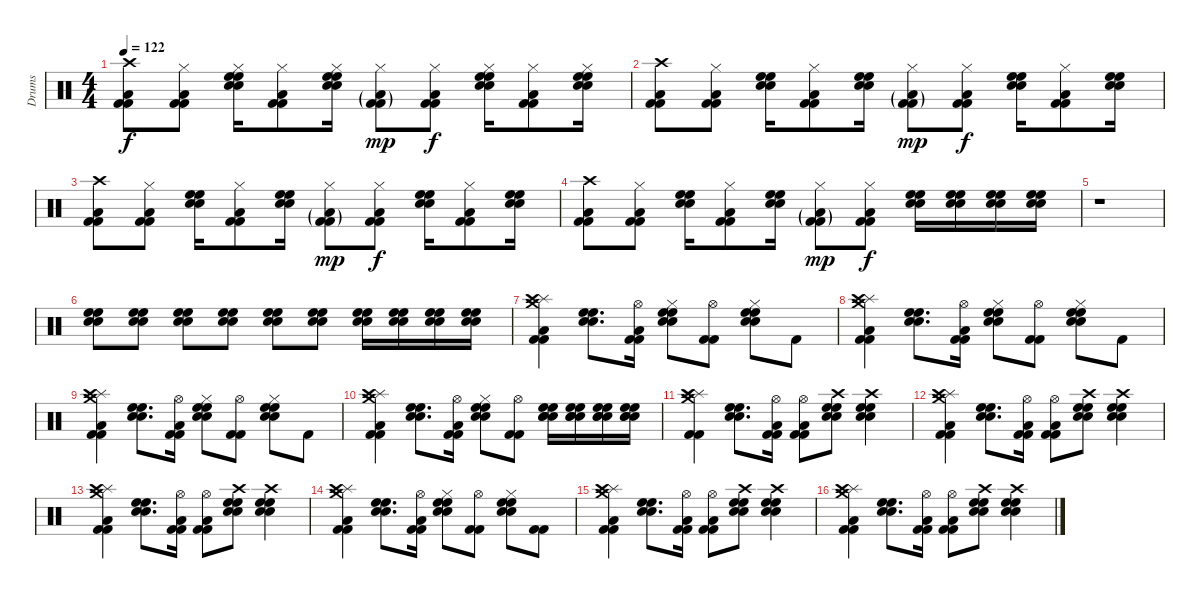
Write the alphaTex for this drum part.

\track ("Drums" "Drums") {instrument percussion}
\staff {score}
\articulation defaults
\ts (4 4)
\tempo 122
\clef neutral
\ks c
("Crash high (hit)" "Low Floor Tom (hit)" "Kick (hit) 2" "Kick (hit) 2").8{dy f} ("Hi-Hat (closed)" "Low Floor Tom (hit)" "Kick (hit) 2" "Kick (hit) 2").8 ("Hi-Hat (closed)" "High Floor Tom (hit)" "Electric Snare (hit)" "High Floor Tom (hit)" "Electric Snare (hit)").16 ("Hi-Hat (closed)" "Low Floor Tom (hit)" "Kick (hit) 2" "Kick (hit) 2").8 ("Hi-Hat (closed)" "High Floor Tom (hit)" "Electric Snare (hit)" "High Floor Tom (hit)" "Electric Snare (hit)").16 ("Hi-Hat (closed)" "Low Floor Tom (hit)"{g} "Kick (hit) 2"{g} "Kick (hit) 2"{g}).8{dy mp} ("Hi-Hat (closed)" "Low Floor Tom (hit)" "Kick (hit) 2" "Kick (hit) 2").8{dy f} ("Hi-Hat (closed)" "High Floor Tom (hit)" "Electric Snare (hit)" "High Floor Tom (hit)" "Electric Snare (hit)").16 ("Hi-Hat (closed)" "Low Floor Tom (hit)" "Kick (hit) 2" "Kick (hit) 2").8 ("Hi-Hat (closed)" "High Floor Tom (hit)" "Electric Snare (hit)" "High Floor Tom (hit)" "Electric Snare (hit)").16 |
("Crash high (hit)" "Low Floor Tom (hit)" "Kick (hit) 2" "Kick (hit) 2").8 ("Hi-Hat (closed)" "Low Floor Tom (hit)" "Kick (hit) 2" "Kick (hit) 2").8 ("High Floor Tom (hit)" "Electric Snare (hit)" "High Floor Tom (hit)" "Electric Snare (hit)").16 ("Hi-Hat (closed)" "Low Floor Tom (hit)" "Kick (hit) 2" "Kick (hit) 2").8 ("High Floor Tom (hit)" "Electric Snare (hit)" "High Floor Tom (hit)" "Electric Snare (hit)").16 ("Hi-Hat (closed)" "Low Floor Tom (hit)"{g} "Kick (hit) 2"{g} "Kick (hit) 2"{g}).8{dy mp} ("Hi-Hat (closed)" "Low Floor Tom (hit)" "Kick (hit) 2" "Kick (hit) 2").8{dy f} ("High Floor Tom (hit)" "Electric Snare (hit)" "High Floor Tom (hit)" "Electric Snare (hit)").16 ("Hi-Hat (closed)" "Low Floor Tom (hit)" "Kick (hit) 2" "Kick (hit) 2").8 ("High Floor Tom (hit)" "Electric Snare (hit)" "High Floor Tom (hit)" "Electric Snare (hit)").16 |
("Crash high (hit)" "Low Floor Tom (hit)" "Kick (hit) 2" "Kick (hit) 2").8 ("Hi-Hat (closed)" "Low Floor Tom (hit)" "Kick (hit) 2" "Kick (hit) 2").8 ("High Floor Tom (hit)" "Electric Snare (hit)" "High Floor Tom (hit)" "Electric Snare (hit)").16 ("Hi-Hat (closed)" "Low Floor Tom (hit)" "Kick (hit) 2" "Kick (hit) 2").8 ("High Floor Tom (hit)" "Electric Snare (hit)" "High Floor Tom (hit)" "Electric Snare (hit)").16 ("Hi-Hat (closed)" "Low Floor Tom (hit)"{g} "Kick (hit) 2"{g} "Kick (hit) 2"{g}).8{dy mp} ("Hi-Hat (closed)" "Low Floor Tom (hit)" "Kick (hit) 2" "Kick (hit) 2").8{dy f} ("High Floor Tom (hit)" "Electric Snare (hit)" "High Floor Tom (hit)" "Electric Snare (hit)").16 ("Hi-Hat (closed)" "Low Floor Tom (hit)" "Kick (hit) 2" "Kick (hit) 2").8 ("High Floor Tom (hit)" "Electric Snare (hit)" "High Floor Tom (hit)" "Electric Snare (hit)").16 |
("Crash high (hit)" "Low Floor Tom (hit)" "Kick (hit) 2" "Kick (hit) 2").8 ("Hi-Hat (closed)" "Low Floor Tom (hit)" "Kick (hit) 2" "Kick (hit) 2").8 ("High Floor Tom (hit)" "Electric Snare (hit)" "High Floor Tom (hit)" "Electric Snare (hit)").16 ("Hi-Hat (closed)" "Low Floor Tom (hit)" "Kick (hit) 2" "Kick (hit) 2").8 ("High Floor Tom (hit)" "Electric Snare (hit)" "High Floor Tom (hit)" "Electric Snare (hit)").16 ("Hi-Hat (closed)" "Low Floor Tom (hit)"{g} "Kick (hit) 2"{g} "Kick (hit) 2"{g}).8{dy mp} ("Hi-Hat (closed)" "Low Floor Tom (hit)" "Kick (hit) 2" "Kick (hit) 2").8{dy f} ("High Floor Tom (hit)" "Electric Snare (hit)" "High Floor Tom (hit)" "Electric Snare (hit)").16 ("High Floor Tom (hit)" "Electric Snare (hit)" "High Floor Tom (hit)" "Electric Snare (hit)").16 ("High Floor Tom (hit)" "Electric Snare (hit)" "High Floor Tom (hit)" "Electric Snare (hit)").16 ("High Floor Tom (hit)" "Electric Snare (hit)" "High Floor Tom (hit)" "Electric Snare (hit)").16 |
r.1 |
("Electric Snare (hit)" "High Floor Tom (hit)"{x} "High Floor Tom (hit)" "Electric Snare (hit)").8 ("Electric Snare (hit)" "High Floor Tom (hit)"{x} "High Floor Tom (hit)" "Electric Snare (hit)").8 ("Electric Snare (hit)" "High Floor Tom (hit)"{x} "High Floor Tom (hit)" "Electric Snare (hit)").8 ("Electric Snare (hit)" "High Floor Tom (hit)"{x} "High Floor Tom (hit)" "Electric Snare (hit)").8 ("Electric Snare (hit)" "High Floor Tom (hit)"{x} "High Floor Tom (hit)" "Electric Snare (hit)").8 ("Electric Snare (hit)" "High Floor Tom (hit)"{x} "High Floor Tom (hit)" "Electric Snare (hit)").8 ("Electric Snare (hit)" "High Floor Tom (hit)" "High Floor Tom (hit)" "Electric Snare (hit)").16 ("Electric Snare (hit)" "High Floor Tom (hit)" "High Floor Tom (hit)" "Electric Snare (hit)").16 ("Electric Snare (hit)" "High Floor Tom (hit)" "High Floor Tom (hit)" "Electric Snare (hit)").16 ("Electric Snare (hit)" "High Floor Tom (hit)" "High Floor Tom (hit)" "Electric Snare (hit)").16 |
("Crash medium (hit)" "Splash (hit)" "Crash high (hit)" "Low Floor Tom (hit)" "Kick (hit) 2" "Kick (hit) 2").4 ("Electric Snare (hit)" "High Floor Tom (hit)" "Electric Snare (hit)" "High Floor Tom (hit)").8{d} ("Hi-Hat (open)" "Low Floor Tom (hit)" "Kick (hit) 2" "Kick (hit) 2").16 ("Hi-Hat (closed)" "Electric Snare (hit)" "High Floor Tom (hit)" "Electric Snare (hit)" "High Floor Tom (hit)").8 ("Hi-Hat (open)" "Kick (hit) 2" "Kick (hit) 2").8 ("Hi-Hat (closed)" "Electric Snare (hit)" "High Floor Tom (hit)" "Electric Snare (hit)" "High Floor Tom (hit)").8 "Kick (hit) 2".8 |
("Crash medium (hit)" "Splash (hit)" "Crash high (hit)" "Low Floor Tom (hit)" "Kick (hit) 2" "Kick (hit) 2").4 ("Electric Snare (hit)" "High Floor Tom (hit)" "Electric Snare (hit)" "High Floor Tom (hit)").8{d} ("Hi-Hat (open)" "Low Floor Tom (hit)" "Kick (hit) 2" "Kick (hit) 2").16 ("Hi-Hat (closed)" "Electric Snare (hit)" "High Floor Tom (hit)" "Electric Snare (hit)" "High Floor Tom (hit)").8 ("Hi-Hat (open)" "Kick (hit) 2" "Kick (hit) 2").8 ("Hi-Hat (closed)" "Electric Snare (hit)" "High Floor Tom (hit)" "Electric Snare (hit)" "High Floor Tom (hit)").8 "Kick (hit) 2".8 |
("Crash medium (hit)" "Splash (hit)" "Crash high (hit)" "Low Floor Tom (hit)" "Kick (hit) 2" "Kick (hit) 2").4 ("Electric Snare (hit)" "High Floor Tom (hit)" "Electric Snare (hit)" "High Floor Tom (hit)").8{d} ("Hi-Hat (open)" "Low Floor Tom (hit)" "Kick (hit) 2" "Kick (hit) 2").16 ("Hi-Hat (closed)" "Electric Snare (hit)" "High Floor Tom (hit)" "Electric Snare (hit)" "High Floor Tom (hit)").8 ("Hi-Hat (open)" "Kick (hit) 2" "Kick (hit) 2").8 ("Hi-Hat (closed)" "Electric Snare (hit)" "High Floor Tom (hit)" "Electric Snare (hit)" "High Floor Tom (hit)").8 "Kick (hit) 2".8 |
("Crash medium (hit)" "Splash (hit)" "Crash high (hit)" "Low Floor Tom (hit)" "Kick (hit) 2" "Kick (hit) 2").4 ("Electric Snare (hit)" "High Floor Tom (hit)" "Electric Snare (hit)" "High Floor Tom (hit)").8{d} ("Hi-Hat (open)" "Low Floor Tom (hit)" "Kick (hit) 2" "Kick (hit) 2").16 ("Hi-Hat (closed)" "Electric Snare (hit)" "High Floor Tom (hit)" "Electric Snare (hit)" "High Floor Tom (hit)").8 ("Hi-Hat (open)" "Kick (hit) 2" "Kick (hit) 2").8 ("Electric Snare (hit)" "Electric Snare (hit)" "High Floor Tom (hit)" "Electric Snare (hit)" "High Floor Tom (hit)").16 ("Electric Snare (hit)" "Electric Snare (hit)" "High Floor Tom (hit)" "Electric Snare (hit)" "High Floor Tom (hit)").16 ("Electric Snare (hit)" "Electric Snare (hit)" "High Floor Tom (hit)" "Electric Snare (hit)" "High Floor Tom (hit)").16 ("Electric Snare (hit)" "Electric Snare (hit)" "High Floor Tom (hit)" "Electric Snare (hit)" "High Floor Tom (hit)").16 |
("Crash medium (hit)" "Splash (hit)" "Crash high (hit)" "Splash (hit)" "Kick (hit) 2" "Kick (hit) 2").4 ("Electric Snare (hit)" "High Floor Tom (hit)" "Electric Snare (hit)" "High Floor Tom (hit)").8{d} ("Hi-Hat (open)" "Low Floor Tom (hit)" "Kick (hit) 2" "Kick (hit) 2").16 ("Hi-Hat (open)" "Low Floor Tom (hit)" "Kick (hit) 2" "Kick (hit) 2").8 ("Crash high (hit)" "Electric Snare (hit)" "High Floor Tom (hit)" "Electric Snare (hit)" "High Floor Tom (hit)").8 ("Crash high (hit)" "Electric Snare (hit)" "High Floor Tom (hit)" "Electric Snare (hit)" "High Floor Tom (hit)").4 |
("Crash medium (hit)" "Splash (hit)" "Crash high (hit)" "Low Floor Tom (hit)" "Kick (hit) 2" "Kick (hit) 2").4 ("Electric Snare (hit)" "High Floor Tom (hit)" "Electric Snare (hit)" "High Floor Tom (hit)").8{d} ("Hi-Hat (open)" "Low Floor Tom (hit)" "Kick (hit) 2" "Kick (hit) 2").16 ("Hi-Hat (open)" "Low Floor Tom (hit)" "Kick (hit) 2" "Kick (hit) 2").8 ("Crash high (hit)" "Electric Snare (hit)" "High Floor Tom (hit)" "Electric Snare (hit)" "High Floor Tom (hit)").8 ("Crash high (hit)" "Electric Snare (hit)" "High Floor Tom (hit)" "Electric Snare (hit)" "High Floor Tom (hit)").4 |
("Crash medium (hit)" "Splash (hit)" "Crash high (hit)" "Low Floor Tom (hit)" "Kick (hit) 2" "Kick (hit) 2").4 ("Electric Snare (hit)" "High Floor Tom (hit)" "Electric Snare (hit)" "High Floor Tom (hit)").8{d} ("Hi-Hat (open)" "Low Floor Tom (hit)" "Kick (hit) 2" "Kick (hit) 2").16 ("Hi-Hat (open)" "Low Floor Tom (hit)" "Kick (hit) 2" "Kick (hit) 2").8 ("Crash high (hit)" "Electric Snare (hit)" "High Floor Tom (hit)" "Electric Snare (hit)" "High Floor Tom (hit)").8 ("Crash high (hit)" "Electric Snare (hit)" "High Floor Tom (hit)" "Electric Snare (hit)" "High Floor Tom (hit)").4 |
("Crash medium (hit)" "Splash (hit)" "Crash high (hit)" "Low Floor Tom (hit)" "Kick (hit) 2" "Kick (hit) 2").4 ("Electric Snare (hit)" "High Floor Tom (hit)" "Electric Snare (hit)" "High Floor Tom (hit)").8{d} ("Hi-Hat (open)" "Low Floor Tom (hit)" "Kick (hit) 2" "Kick (hit) 2").16 ("Hi-Hat (closed)" "Electric Snare (hit)" "High Floor Tom (hit)" "Electric Snare (hit)" "High Floor Tom (hit)").8 ("Hi-Hat (open)" "Kick (hit) 2" "Kick (hit) 2").8 ("Hi-Hat (closed)" "Electric Snare (hit)" "High Floor Tom (hit)" "Electric Snare (hit)" "High Floor Tom (hit)").8 ("Kick (hit) 2" "Kick (hit) 2").8 |
("Crash medium (hit)" "Splash (hit)" "Crash high (hit)" "Low Floor Tom (hit)" "Kick (hit) 2" "Kick (hit) 2").4 ("Electric Snare (hit)" "High Floor Tom (hit)" "Electric Snare (hit)" "High Floor Tom (hit)").8{d} ("Hi-Hat (open)" "Low Floor Tom (hit)" "Kick (hit) 2" "Kick (hit) 2").16 ("Hi-Hat (open)" "Low Floor Tom (hit)" "Kick (hit) 2" "Kick (hit) 2").8 ("Crash high (hit)" "Electric Snare (hit)" "High Floor Tom (hit)" "Electric Snare (hit)" "High Floor Tom (hit)").8 ("Crash high (hit)" "Electric Snare (hit)" "High Floor Tom (hit)" "Electric Snare (hit)" "High Floor Tom (hit)").4 |
("Crash medium (hit)" "Splash (hit)" "Crash high (hit)" "Low Floor Tom (hit)" "Kick (hit) 2" "Kick (hit) 2").4 ("Electric Snare (hit)" "High Floor Tom (hit)" "Electric Snare (hit)" "High Floor Tom (hit)").8{d} ("Hi-Hat (open)" "Low Floor Tom (hit)" "Kick (hit) 2" "Kick (hit) 2").16 ("Hi-Hat (open)" "Low Floor Tom (hit)" "Kick (hit) 2" "Kick (hit) 2").8 ("Crash high (hit)" "Electric Snare (hit)" "High Floor Tom (hit)" "Electric Snare (hit)" "High Floor Tom (hit)").8 ("Crash high (hit)" "Electric Snare (hit)" "High Floor Tom (hit)" "Electric Snare (hit)" "High Floor Tom (hit)").4
